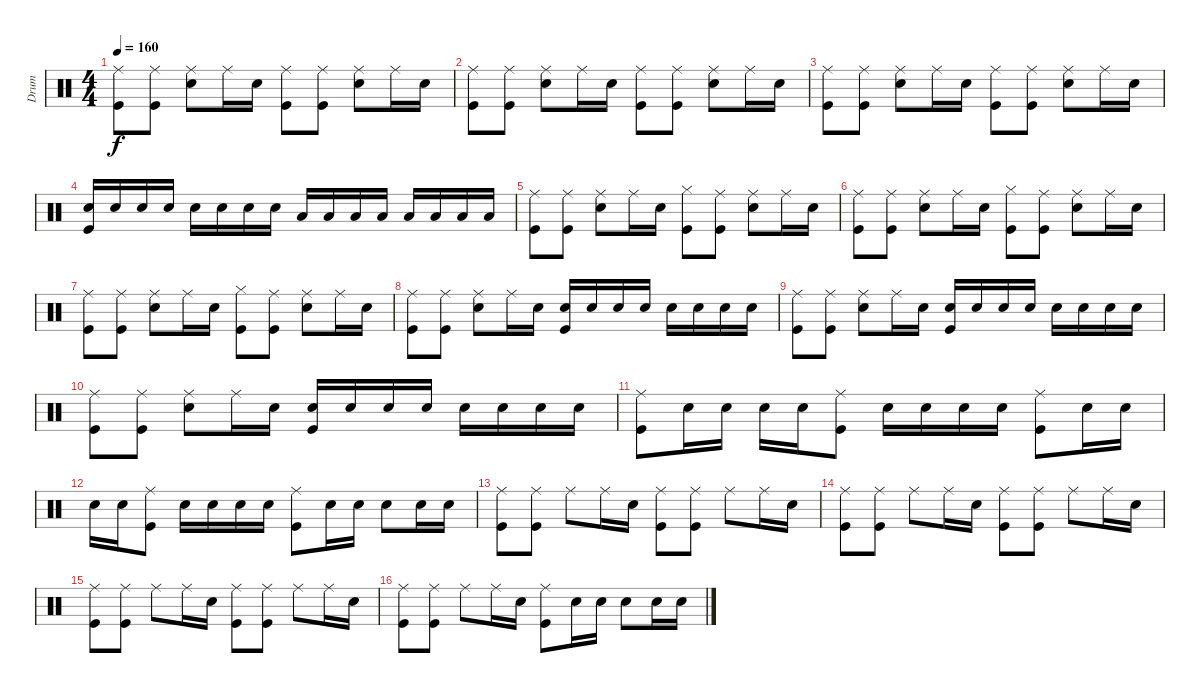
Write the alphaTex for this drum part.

\track ("Drum" "Drum") {instrument percussion}
\staff {score}
\articulation defaults
\ts (4 4)
\tempo 160
\clef neutral
\ks c
("Ride (middle)" "Kick (hit)").8{dy f} ("Ride (middle)" "Kick (hit)").8 ("Ride (middle)" "Electric Snare (hit)").8 "Ride (middle)".16 "Electric Snare (hit)".16 ("Ride (middle)" "Kick (hit)").8 ("Ride (middle)" "Kick (hit)").8 ("Ride (middle)" "Electric Snare (hit)").8 "Ride (middle)".16 "Electric Snare (hit)".16 |
("Ride (middle)" "Kick (hit)").8 ("Ride (middle)" "Kick (hit)").8 ("Ride (middle)" "Electric Snare (hit)").8 "Ride (middle)".16 "Electric Snare (hit)".16 ("Ride (middle)" "Kick (hit)").8 ("Ride (middle)" "Kick (hit)").8 ("Ride (middle)" "Electric Snare (hit)").8 "Ride (middle)".16 "Electric Snare (hit)".16 |
("Ride (middle)" "Kick (hit)").8 ("Ride (middle)" "Kick (hit)").8 ("Ride (middle)" "Electric Snare (hit)").8 "Ride (middle)".16 "Electric Snare (hit)".16 ("Ride (middle)" "Kick (hit)").8 ("Ride (middle)" "Kick (hit)").8 ("Ride (middle)" "Electric Snare (hit)").8 "Ride (middle)".16 "Electric Snare (hit)".16 |
("Electric Snare (hit)" "Kick (hit)").16 "Electric Snare (hit)".16 "Electric Snare (hit)".16 "Electric Snare (hit)".16 "Electric Snare (hit)".16 "Electric Snare (hit)".16 "Electric Snare (hit)".16 "Electric Snare (hit)".16 "Low Tom (hit)".16 "Low Tom (hit)".16 "Low Tom (hit)".16 "Low Tom (hit)".16 "Low Floor Tom (hit)".16 "Low Floor Tom (hit)".16 "Low Floor Tom (hit)".16 "Low Floor Tom (hit)".16 |
("Ride (middle)" "Kick (hit)").8 ("Ride (middle)" "Kick (hit)").8 ("Ride (middle)" "Electric Snare (hit)").8 "Ride (middle)".16 "Electric Snare (hit)".16 ("Hi-Hat (closed)" "Kick (hit)").8 ("Ride (middle)" "Kick (hit)").8 ("Ride (middle)" "Electric Snare (hit)").8 "Ride (middle)".16 "Electric Snare (hit)".16 |
("Ride (middle)" "Kick (hit)").8 ("Ride (middle)" "Kick (hit)").8 ("Ride (middle)" "Electric Snare (hit)").8 "Ride (middle)".16 "Electric Snare (hit)".16 ("Hi-Hat (closed)" "Kick (hit)").8 ("Ride (middle)" "Kick (hit)").8 ("Ride (middle)" "Electric Snare (hit)").8 "Ride (middle)".16 "Electric Snare (hit)".16 |
("Ride (middle)" "Kick (hit)").8 ("Ride (middle)" "Kick (hit)").8 ("Ride (middle)" "Electric Snare (hit)").8 "Ride (middle)".16 "Electric Snare (hit)".16 ("Hi-Hat (closed)" "Kick (hit)").8 ("Ride (middle)" "Kick (hit)").8 ("Ride (middle)" "Electric Snare (hit)").8 "Ride (middle)".16 "Electric Snare (hit)".16 |
("Ride (middle)" "Kick (hit)").8 ("Ride (middle)" "Kick (hit)").8 ("Ride (middle)" "Electric Snare (hit)").8 "Ride (middle)".16 "Electric Snare (hit)".16 ("Electric Snare (hit)" "Kick (hit)").16 "Electric Snare (hit)".16 "Electric Snare (hit)".16 "Electric Snare (hit)".16 "Electric Snare (hit)".16 "Electric Snare (hit)".16 "Electric Snare (hit)".16 "Electric Snare (hit)".16 |
("Ride (middle)" "Kick (hit)").8 ("Ride (middle)" "Kick (hit)").8 ("Ride (middle)" "Electric Snare (hit)").8 "Ride (middle)".16 "Electric Snare (hit)".16 ("Electric Snare (hit)" "Kick (hit)").16 "Electric Snare (hit)".16 "Electric Snare (hit)".16 "Electric Snare (hit)".16 "Electric Snare (hit)".16 "Electric Snare (hit)".16 "Electric Snare (hit)".16 "Electric Snare (hit)".16 |
("Ride (middle)" "Kick (hit)").8 ("Ride (middle)" "Kick (hit)").8 ("Ride (middle)" "Electric Snare (hit)").8 "Ride (middle)".16 "Electric Snare (hit)".16 ("Electric Snare (hit)" "Kick (hit)").16 "Electric Snare (hit)".16 "Electric Snare (hit)".16 "Electric Snare (hit)".16 "Electric Snare (hit)".16 "Electric Snare (hit)".16 "Electric Snare (hit)".16 "Electric Snare (hit)".16 |
("Ride (middle)" "Kick (hit)").8 "Electric Snare (hit)".16 "Electric Snare (hit)".16 "Electric Snare (hit)".16 "Electric Snare (hit)".16 ("Ride (middle)" "Kick (hit)").8 "Electric Snare (hit)".16 "Electric Snare (hit)".16 "Electric Snare (hit)".16 "Electric Snare (hit)".16 ("Ride (middle)" "Kick (hit)").8 "Electric Snare (hit)".16 "Electric Snare (hit)".16 |
"Electric Snare (hit)".16 "Electric Snare (hit)".16 ("Ride (middle)" "Kick (hit)").8 "Electric Snare (hit)".16 "Electric Snare (hit)".16 "Electric Snare (hit)".16 "Electric Snare (hit)".16 ("Ride (middle)" "Kick (hit)").8 "Electric Snare (hit)".16 "Electric Snare (hit)".16 "Electric Snare (hit)".8 "Electric Snare (hit)".16 "Electric Snare (hit)".16 |
("Ride (middle)" "Kick (hit)").8 ("Ride (middle)" "Kick (hit)").8 "Ride (middle)".8 "Ride (middle)".16 "Electric Snare (hit)".16 ("Ride (middle)" "Kick (hit)").8 ("Ride (middle)" "Kick (hit)").8 "Ride (middle)".8 "Ride (middle)".16 "Electric Snare (hit)".16 |
("Ride (middle)" "Kick (hit)").8 ("Ride (middle)" "Kick (hit)").8 "Ride (middle)".8 "Ride (middle)".16 "Electric Snare (hit)".16 ("Ride (middle)" "Kick (hit)").8 ("Ride (middle)" "Kick (hit)").8 "Ride (middle)".8 "Ride (middle)".16 "Electric Snare (hit)".16 |
("Ride (middle)" "Kick (hit)").8 ("Ride (middle)" "Kick (hit)").8 "Ride (middle)".8 "Ride (middle)".16 "Electric Snare (hit)".16 ("Ride (middle)" "Kick (hit)").8 ("Ride (middle)" "Kick (hit)").8 "Ride (middle)".8 "Ride (middle)".16 "Electric Snare (hit)".16 |
("Ride (middle)" "Kick (hit)").8 ("Ride (middle)" "Kick (hit)").8 "Ride (middle)".8 "Ride (middle)".16 "Electric Snare (hit)".16 ("Ride (middle)" "Kick (hit)").8 "Electric Snare (hit)".16 "Electric Snare (hit)".16 "Electric Snare (hit)".8 "Electric Snare (hit)".16 "Electric Snare (hit)".16
